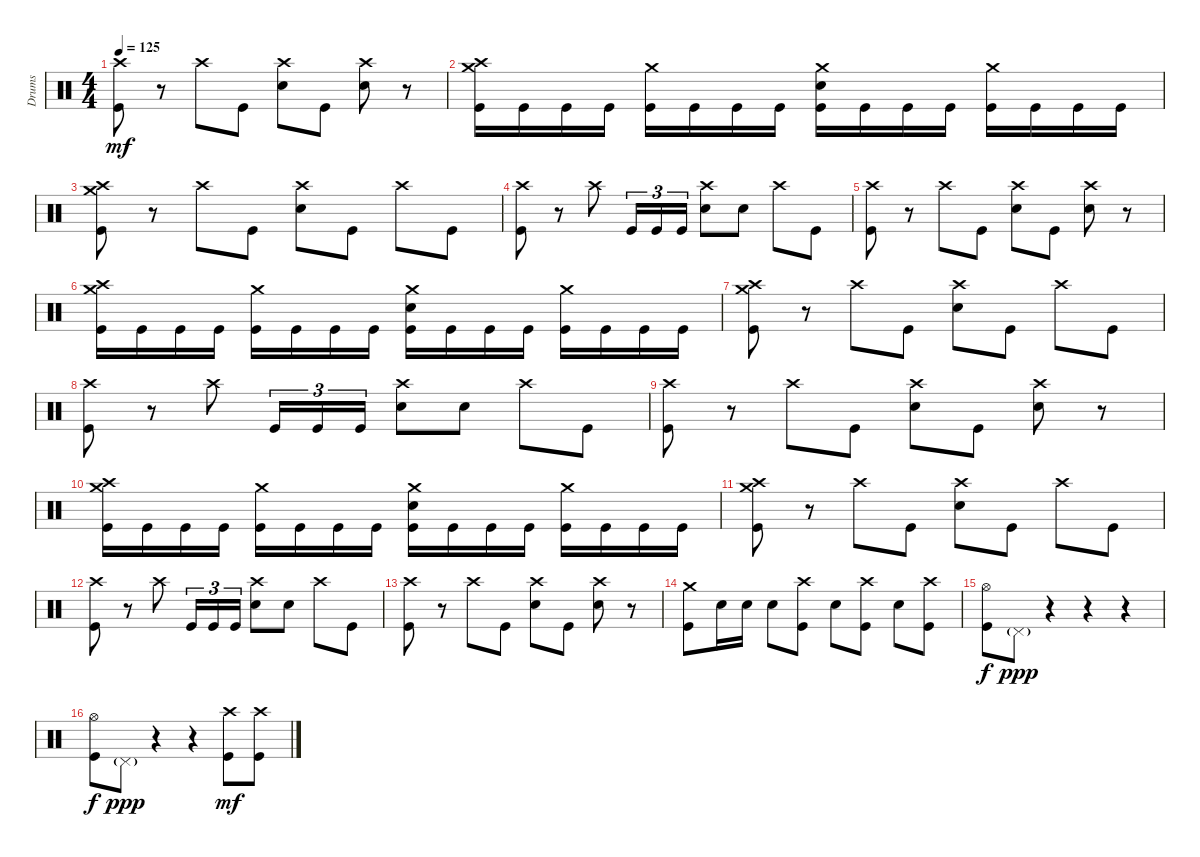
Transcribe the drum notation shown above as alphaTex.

\track ("Drums" "Drums") {instrument percussion}
\staff {score}
\articulation defaults
\ts (4 4)
\tempo 125
\clef neutral
\ks c
("Crash high (hit)" "Kick (hit)").8{dy mf} r.8 "Crash high (hit)".8 "Kick (hit)".8 ("Crash high (hit)" "Electric Snare (hit)").8 "Kick (hit)".8 ("Crash high (hit)" "Electric Snare (hit)").8 r.8 |
("Crash medium (hit)" "Crash high (hit)" "Kick (hit)").16 "Kick (hit)".16 "Kick (hit)".16 "Kick (hit)".16 ("Crash medium (hit)" "Kick (hit)").16 "Kick (hit)".16 "Kick (hit)".16 "Kick (hit)".16 ("Crash medium (hit)" "Electric Snare (hit)" "Kick (hit)").16 "Kick (hit)".16 "Kick (hit)".16 "Kick (hit)".16 ("Crash medium (hit)" "Kick (hit)").16 "Kick (hit)".16 "Kick (hit)".16 "Kick (hit)".16 |
("Crash medium (hit)" "Crash high (hit)" "Kick (hit)").8 r.8 "Crash high (hit)".8 "Kick (hit)".8 ("Crash high (hit)" "Electric Snare (hit)").8 "Kick (hit)".8 "Crash high (hit)".8 "Kick (hit)".8 |
("Crash high (hit)" "Kick (hit)").8 r.8 "Crash high (hit)".8 "Kick (hit)".16{tu (3 2)} "Kick (hit)".16{tu (3 2)} "Kick (hit)".16{tu (3 2)} ("Crash high (hit)" "Electric Snare (hit)").8 "Electric Snare (hit)".8 "Crash high (hit)".8 "Kick (hit)".8 |
("Crash high (hit)" "Kick (hit)").8 r.8 "Crash high (hit)".8 "Kick (hit)".8 ("Crash high (hit)" "Electric Snare (hit)").8 "Kick (hit)".8 ("Crash high (hit)" "Electric Snare (hit)").8 r.8 |
("Crash medium (hit)" "Crash high (hit)" "Kick (hit)").16 "Kick (hit)".16 "Kick (hit)".16 "Kick (hit)".16 ("Crash medium (hit)" "Kick (hit)").16 "Kick (hit)".16 "Kick (hit)".16 "Kick (hit)".16 ("Crash medium (hit)" "Electric Snare (hit)" "Kick (hit)").16 "Kick (hit)".16 "Kick (hit)".16 "Kick (hit)".16 ("Crash medium (hit)" "Kick (hit)").16 "Kick (hit)".16 "Kick (hit)".16 "Kick (hit)".16 |
("Crash medium (hit)" "Crash high (hit)" "Kick (hit)").8 r.8 "Crash high (hit)".8 "Kick (hit)".8 ("Crash high (hit)" "Electric Snare (hit)").8 "Kick (hit)".8 "Crash high (hit)".8 "Kick (hit)".8 |
("Crash high (hit)" "Kick (hit)").8 r.8 "Crash high (hit)".8 "Kick (hit)".16{tu (3 2)} "Kick (hit)".16{tu (3 2)} "Kick (hit)".16{tu (3 2)} ("Crash high (hit)" "Electric Snare (hit)").8 "Electric Snare (hit)".8 "Crash high (hit)".8 "Kick (hit)".8 |
("Crash high (hit)" "Kick (hit)").8 r.8 "Crash high (hit)".8 "Kick (hit)".8 ("Crash high (hit)" "Electric Snare (hit)").8 "Kick (hit)".8 ("Crash high (hit)" "Electric Snare (hit)").8 r.8 |
("Crash medium (hit)" "Crash high (hit)" "Kick (hit)").16 "Kick (hit)".16 "Kick (hit)".16 "Kick (hit)".16 ("Crash medium (hit)" "Kick (hit)").16 "Kick (hit)".16 "Kick (hit)".16 "Kick (hit)".16 ("Crash medium (hit)" "Electric Snare (hit)" "Kick (hit)").16 "Kick (hit)".16 "Kick (hit)".16 "Kick (hit)".16 ("Crash medium (hit)" "Kick (hit)").16 "Kick (hit)".16 "Kick (hit)".16 "Kick (hit)".16 |
("Crash medium (hit)" "Crash high (hit)" "Kick (hit)").8 r.8 "Crash high (hit)".8 "Kick (hit)".8 ("Crash high (hit)" "Electric Snare (hit)").8 "Kick (hit)".8 "Crash high (hit)".8 "Kick (hit)".8 |
("Crash high (hit)" "Kick (hit)").8 r.8 "Crash high (hit)".8 "Kick (hit)".16{tu (3 2)} "Kick (hit)".16{tu (3 2)} "Kick (hit)".16{tu (3 2)} ("Crash high (hit)" "Electric Snare (hit)").8 "Electric Snare (hit)".8 "Crash high (hit)".8 "Kick (hit)".8 |
("Crash high (hit)" "Kick (hit)").8 r.8 "Crash high (hit)".8 "Kick (hit)".8 ("Crash high (hit)" "Electric Snare (hit)").8 "Kick (hit)".8 ("Crash high (hit)" "Electric Snare (hit)").8 r.8 |
("Crash medium (hit)" "Kick (hit)").8 "Electric Snare (hit)".16 "Electric Snare (hit)".16 "Electric Snare (hit)".8 ("Crash high (hit)" "Kick (hit)").8 "Electric Snare (hit)".8 ("Crash high (hit)" "Kick (hit)").8 "Electric Snare (hit)".8 ("Crash high (hit)" "Kick (hit)").8 |
("Hi-Hat (open)" "Kick (hit)").8{dy f} "Pedal Hi-Hat (hit)"{g}.8{dy ppp} r.4 r.4 r.4 |
("Hi-Hat (open)" "Kick (hit)").8{dy f} "Pedal Hi-Hat (hit)"{g}.8{dy ppp} r.4 r.4 ("Crash high (hit)" "Kick (hit)").8{dy mf} ("Crash high (hit)" "Kick (hit)").8
